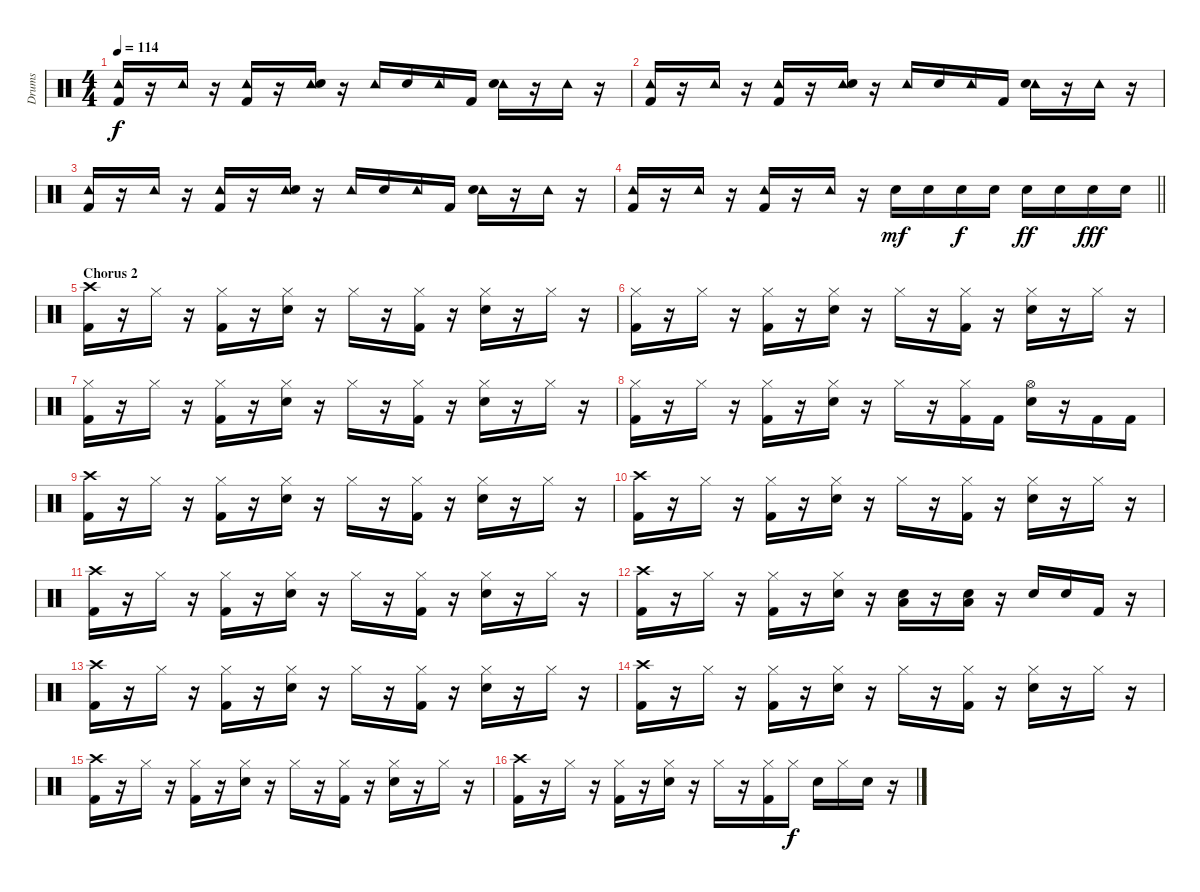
\track ("Drums" "Drums") {instrument percussion bank 127}
\staff {score}
\articulation defaults
\ts (4 4)
\tempo 114
\clef neutral
\ks c
("Tambourine (hit)" "Kick (hit) 2").16{dy f} r.16 "Tambourine (hit)".16 r.16 ("Tambourine (hit)" "Kick (hit) 2").16 r.16 ("Tambourine (hit)" "Electric Snare (hit)").16 r.16 "Tambourine (hit)".16 "Electric Snare (hit)".16 "Tambourine (hit)".16 "Kick (hit) 2".16 ("Tambourine (hit)" "Electric Snare (hit)").16 r.16 "Tambourine (hit)".16 r.16 |
("Tambourine (hit)" "Kick (hit) 2").16 r.16 "Tambourine (hit)".16 r.16 ("Tambourine (hit)" "Kick (hit) 2").16 r.16 ("Tambourine (hit)" "Electric Snare (hit)").16 r.16 "Tambourine (hit)".16 "Electric Snare (hit)".16 "Tambourine (hit)".16 "Kick (hit) 2".16 ("Tambourine (hit)" "Electric Snare (hit)").16 r.16 "Tambourine (hit)".16 r.16 |
("Tambourine (hit)" "Kick (hit) 2").16 r.16 "Tambourine (hit)".16 r.16 ("Tambourine (hit)" "Kick (hit) 2").16 r.16 ("Tambourine (hit)" "Electric Snare (hit)").16 r.16 "Tambourine (hit)".16 "Electric Snare (hit)".16 "Tambourine (hit)".16 "Kick (hit) 2".16 ("Tambourine (hit)" "Electric Snare (hit)").16 r.16 "Tambourine (hit)".16 r.16 |
\barLineRight lightlight
("Tambourine (hit)" "Kick (hit) 2").16 r.16 "Tambourine (hit)".16 r.16 ("Tambourine (hit)" "Kick (hit) 2").16 r.16 "Tambourine (hit)".16 r.16 "Electric Snare (hit)".16{dy mf} "Electric Snare (hit)".16 "Electric Snare (hit)".16{dy f} "Electric Snare (hit)".16 "Electric Snare (hit)".16{dy ff} "Electric Snare (hit)".16 "Electric Snare (hit)".16{dy fff} "Electric Snare (hit)".16 |
\section ("" "Chorus 2")
("Crash high (hit)" "Kick (hit) 2").16 r.16 "Hi-Hat (closed)".16 r.16 ("Hi-Hat (closed)" "Kick (hit) 2").16 r.16 ("Hi-Hat (closed)" "Electric Snare (hit)").16 r.16 "Hi-Hat (closed)".16 r.16 ("Hi-Hat (closed)" "Kick (hit) 2").16 r.16 ("Hi-Hat (closed)" "Electric Snare (hit)").16 r.16 "Hi-Hat (closed)".16 r.16 |
("Hi-Hat (closed)" "Kick (hit) 2").16 r.16 "Hi-Hat (closed)".16 r.16 ("Hi-Hat (closed)" "Kick (hit) 2").16 r.16 ("Hi-Hat (closed)" "Electric Snare (hit)").16 r.16 "Hi-Hat (closed)".16 r.16 ("Hi-Hat (closed)" "Kick (hit) 2").16 r.16 ("Hi-Hat (closed)" "Electric Snare (hit)").16 r.16 "Hi-Hat (closed)".16 r.16 |
("Hi-Hat (closed)" "Kick (hit) 2").16 r.16 "Hi-Hat (closed)".16 r.16 ("Hi-Hat (closed)" "Kick (hit) 2").16 r.16 ("Hi-Hat (closed)" "Electric Snare (hit)").16 r.16 "Hi-Hat (closed)".16 r.16 ("Hi-Hat (closed)" "Kick (hit) 2").16 r.16 ("Hi-Hat (closed)" "Electric Snare (hit)").16 r.16 "Hi-Hat (closed)".16 r.16 |
("Hi-Hat (closed)" "Kick (hit) 2").16 r.16 "Hi-Hat (closed)".16 r.16 ("Hi-Hat (closed)" "Kick (hit) 2").16 r.16 ("Hi-Hat (closed)" "Electric Snare (hit)").16 r.16 "Hi-Hat (closed)".16 r.16 ("Hi-Hat (closed)" "Kick (hit) 2").16 "Kick (hit) 2".16 ("Hi-Hat (open)" "Electric Snare (hit)").16 r.16 "Kick (hit) 2".16 "Kick (hit) 2".16 |
("Crash high (hit)" "Kick (hit) 2").16 r.16 "Hi-Hat (closed)".16 r.16 ("Hi-Hat (closed)" "Kick (hit) 2").16 r.16 ("Hi-Hat (closed)" "Electric Snare (hit)").16 r.16 "Hi-Hat (closed)".16 r.16 ("Hi-Hat (closed)" "Kick (hit) 2").16 r.16 ("Hi-Hat (closed)" "Electric Snare (hit)").16 r.16 "Hi-Hat (closed)".16 r.16 |
("Crash high (hit)" "Kick (hit) 2").16 r.16 "Hi-Hat (closed)".16 r.16 ("Hi-Hat (closed)" "Kick (hit) 2").16 r.16 ("Hi-Hat (closed)" "Electric Snare (hit)").16 r.16 "Hi-Hat (closed)".16 r.16 ("Hi-Hat (closed)" "Kick (hit) 2").16 r.16 ("Hi-Hat (closed)" "Electric Snare (hit)").16 r.16 "Hi-Hat (closed)".16 r.16 |
("Crash high (hit)" "Kick (hit) 2").16 r.16 "Hi-Hat (closed)".16 r.16 ("Hi-Hat (closed)" "Kick (hit) 2").16 r.16 ("Hi-Hat (closed)" "Electric Snare (hit)").16 r.16 "Hi-Hat (closed)".16 r.16 ("Hi-Hat (closed)" "Kick (hit) 2").16 r.16 ("Hi-Hat (closed)" "Electric Snare (hit)").16 r.16 "Hi-Hat (closed)".16 r.16 |
("Crash high (hit)" "Kick (hit) 2").16 r.16 "Hi-Hat (closed)".16 r.16 ("Hi-Hat (closed)" "Kick (hit) 2").16 r.16 ("Hi-Hat (closed)" "Electric Snare (hit)").16 r.16 ("Low Floor Tom (hit)" "Electric Snare (hit)").16 r.16 ("Low Floor Tom (hit)" "Electric Snare (hit)").16 r.16 "Electric Snare (hit)".16 "Electric Snare (hit)".16 "Kick (hit) 2".16 r.16 |
("Crash high (hit)" "Kick (hit) 2").16 r.16 "Hi-Hat (closed)".16 r.16 ("Hi-Hat (closed)" "Kick (hit) 2").16 r.16 ("Hi-Hat (closed)" "Electric Snare (hit)").16 r.16 "Hi-Hat (closed)".16 r.16 ("Hi-Hat (closed)" "Kick (hit) 2").16 r.16 ("Hi-Hat (closed)" "Electric Snare (hit)").16 r.16 "Hi-Hat (closed)".16 r.16 |
("Crash high (hit)" "Kick (hit) 2").16 r.16 "Hi-Hat (closed)".16 r.16 ("Hi-Hat (closed)" "Kick (hit) 2").16 r.16 ("Hi-Hat (closed)" "Electric Snare (hit)").16 r.16 "Hi-Hat (closed)".16 r.16 ("Hi-Hat (closed)" "Kick (hit) 2").16 r.16 ("Hi-Hat (closed)" "Electric Snare (hit)").16 r.16 "Hi-Hat (closed)".16 r.16 |
("Crash high (hit)" "Kick (hit) 2").16 r.16 "Hi-Hat (closed)".16 r.16 ("Hi-Hat (closed)" "Kick (hit) 2").16 r.16 ("Hi-Hat (closed)" "Electric Snare (hit)").16 r.16 "Hi-Hat (closed)".16 r.16 ("Hi-Hat (closed)" "Kick (hit) 2").16 r.16 ("Hi-Hat (closed)" "Electric Snare (hit)").16 r.16 "Hi-Hat (closed)".16 r.16 |
("Crash high (hit)" "Kick (hit) 2").16 r.16 "Hi-Hat (closed)".16 r.16 ("Hi-Hat (closed)" "Kick (hit) 2").16 r.16 ("Hi-Hat (closed)" "Electric Snare (hit)").16 r.16 "Hi-Hat (closed)".16 r.16 ("Hi-Hat (closed)" "Kick (hit) 2").16 "Hi-Hat (closed)".16{dy f} "Electric Snare (hit)".16 "Hi-Hat (closed)".16 "Electric Snare (hit)".16 r.16
